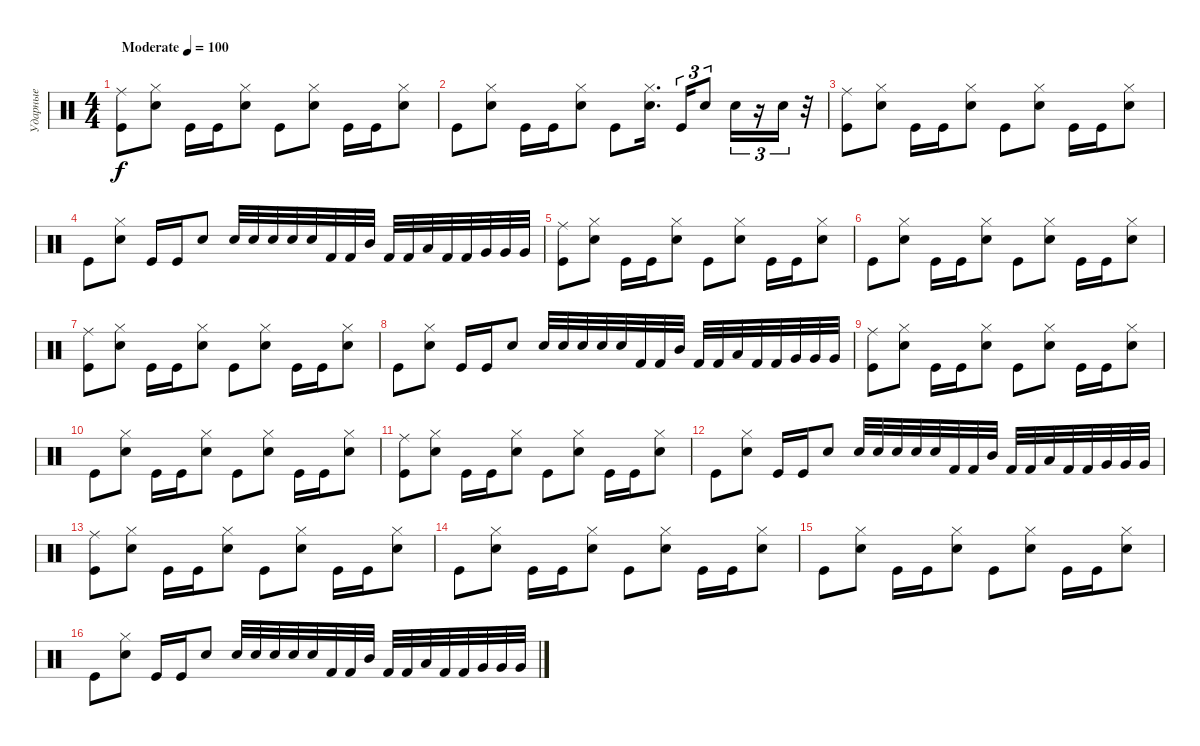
\track ("Ударные" "Ударные") {instrument percussion}
\staff {score}
\articulation defaults
\ts (4 4)
\tempo (100 "Moderate")
\clef neutral
\ks c
("Ride (middle)" "Kick (hit)").8{dy f} ("Hi-Hat (closed)" "Electric Snare (hit)").8 "Kick (hit)".16 "Kick (hit)".16 ("Hi-Hat (closed)" "Electric Snare (hit)").8 "Kick (hit)".8 ("Hi-Hat (closed)" "Electric Snare (hit)").8 "Kick (hit)".16 "Kick (hit)".16 ("Hi-Hat (closed)" "Electric Snare (hit)").8 |
"Kick (hit)".8 ("Hi-Hat (closed)" "Electric Snare (hit)").8 "Kick (hit)".16 "Kick (hit)".16 ("Hi-Hat (closed)" "Electric Snare (hit)").8 "Kick (hit)".8 ("Hi-Hat (closed)" "Electric Snare (hit)").16{d} "Kick (hit)".16{tu (3 2)} "Electric Snare (hit)".8{tu (3 2)} "Electric Snare (hit)".16{tu (3 2)} r.16{tu (3 2)} "Electric Snare (hit)".16{tu (3 2)} r.32 |
("Ride (middle)" "Kick (hit)").8 ("Hi-Hat (closed)" "Electric Snare (hit)").8 "Kick (hit)".16 "Kick (hit)".16 ("Hi-Hat (closed)" "Electric Snare (hit)").8 "Kick (hit)".8 ("Hi-Hat (closed)" "Electric Snare (hit)").8 "Kick (hit)".16 "Kick (hit)".16 ("Hi-Hat (closed)" "Electric Snare (hit)").8 |
"Kick (hit)".8 ("Hi-Hat (closed)" "Electric Snare (hit)").8 "Kick (hit)".16 "Kick (hit)".16 "Electric Snare (hit)".8 "Electric Snare (hit)".32 "Electric Snare (hit)".32 "Electric Snare (hit)".32 "Electric Snare (hit)".32 "Electric Snare (hit)".32 "Kick (hit) 2".32 "Kick (hit) 2".32 "Mid Tom (hit)".32 "Kick (hit) 2".32 "Kick (hit) 2".32 "Low Tom (hit)".32 "Kick (hit) 2".32 "Kick (hit) 2".32 "Very Low Tom (hit)".32 "Very Low Tom (hit)".32 "Very Low Tom (hit)".32 |
("Ride (middle)" "Kick (hit)").8 ("Hi-Hat (closed)" "Electric Snare (hit)").8 "Kick (hit)".16 "Kick (hit)".16 ("Hi-Hat (closed)" "Electric Snare (hit)").8 "Kick (hit)".8 ("Hi-Hat (closed)" "Electric Snare (hit)").8 "Kick (hit)".16 "Kick (hit)".16 ("Hi-Hat (closed)" "Electric Snare (hit)").8 |
"Kick (hit)".8 ("Hi-Hat (closed)" "Electric Snare (hit)").8 "Kick (hit)".16 "Kick (hit)".16 ("Hi-Hat (closed)" "Electric Snare (hit)").8 "Kick (hit)".8 ("Hi-Hat (closed)" "Electric Snare (hit)").8 "Kick (hit)".16 "Kick (hit)".16 ("Hi-Hat (closed)" "Electric Snare (hit)").8 |
("Ride (middle)" "Kick (hit)").8 ("Hi-Hat (closed)" "Electric Snare (hit)").8 "Kick (hit)".16 "Kick (hit)".16 ("Hi-Hat (closed)" "Electric Snare (hit)").8 "Kick (hit)".8 ("Hi-Hat (closed)" "Electric Snare (hit)").8 "Kick (hit)".16 "Kick (hit)".16 ("Hi-Hat (closed)" "Electric Snare (hit)").8 |
"Kick (hit)".8 ("Hi-Hat (closed)" "Electric Snare (hit)").8 "Kick (hit)".16 "Kick (hit)".16 "Electric Snare (hit)".8 "Electric Snare (hit)".32 "Electric Snare (hit)".32 "Electric Snare (hit)".32 "Electric Snare (hit)".32 "Electric Snare (hit)".32 "Kick (hit) 2".32 "Kick (hit) 2".32 "Mid Tom (hit)".32 "Kick (hit) 2".32 "Kick (hit) 2".32 "Low Tom (hit)".32 "Kick (hit) 2".32 "Kick (hit) 2".32 "Very Low Tom (hit)".32 "Very Low Tom (hit)".32 "Very Low Tom (hit)".32 |
("Ride (middle)" "Kick (hit)").8 ("Hi-Hat (closed)" "Electric Snare (hit)").8 "Kick (hit)".16 "Kick (hit)".16 ("Hi-Hat (closed)" "Electric Snare (hit)").8 "Kick (hit)".8 ("Hi-Hat (closed)" "Electric Snare (hit)").8 "Kick (hit)".16 "Kick (hit)".16 ("Hi-Hat (closed)" "Electric Snare (hit)").8 |
"Kick (hit)".8 ("Hi-Hat (closed)" "Electric Snare (hit)").8 "Kick (hit)".16 "Kick (hit)".16 ("Hi-Hat (closed)" "Electric Snare (hit)").8 "Kick (hit)".8 ("Hi-Hat (closed)" "Electric Snare (hit)").8 "Kick (hit)".16 "Kick (hit)".16 ("Hi-Hat (closed)" "Electric Snare (hit)").8 |
("Ride (middle)" "Kick (hit)").8 ("Hi-Hat (closed)" "Electric Snare (hit)").8 "Kick (hit)".16 "Kick (hit)".16 ("Hi-Hat (closed)" "Electric Snare (hit)").8 "Kick (hit)".8 ("Hi-Hat (closed)" "Electric Snare (hit)").8 "Kick (hit)".16 "Kick (hit)".16 ("Hi-Hat (closed)" "Electric Snare (hit)").8 |
"Kick (hit)".8 ("Hi-Hat (closed)" "Electric Snare (hit)").8 "Kick (hit)".16 "Kick (hit)".16 "Electric Snare (hit)".8 "Electric Snare (hit)".32 "Electric Snare (hit)".32 "Electric Snare (hit)".32 "Electric Snare (hit)".32 "Electric Snare (hit)".32 "Kick (hit) 2".32 "Kick (hit) 2".32 "Mid Tom (hit)".32 "Kick (hit) 2".32 "Kick (hit) 2".32 "Low Tom (hit)".32 "Kick (hit) 2".32 "Kick (hit) 2".32 "Very Low Tom (hit)".32 "Very Low Tom (hit)".32 "Very Low Tom (hit)".32 |
("Ride (middle)" "Kick (hit)").8 ("Hi-Hat (closed)" "Electric Snare (hit)").8 "Kick (hit)".16 "Kick (hit)".16 ("Hi-Hat (closed)" "Electric Snare (hit)").8 "Kick (hit)".8 ("Hi-Hat (closed)" "Electric Snare (hit)").8 "Kick (hit)".16 "Kick (hit)".16 ("Hi-Hat (closed)" "Electric Snare (hit)").8 |
"Kick (hit)".8 ("Hi-Hat (closed)" "Electric Snare (hit)").8 "Kick (hit)".16 "Kick (hit)".16 ("Hi-Hat (closed)" "Electric Snare (hit)").8 "Kick (hit)".8 ("Hi-Hat (closed)" "Electric Snare (hit)").8 "Kick (hit)".16 "Kick (hit)".16 ("Hi-Hat (closed)" "Electric Snare (hit)").8 |
"Kick (hit)".8 ("Hi-Hat (closed)" "Electric Snare (hit)").8 "Kick (hit)".16 "Kick (hit)".16 ("Hi-Hat (closed)" "Electric Snare (hit)").8 "Kick (hit)".8 ("Hi-Hat (closed)" "Electric Snare (hit)").8 "Kick (hit)".16 "Kick (hit)".16 ("Hi-Hat (closed)" "Electric Snare (hit)").8 |
"Kick (hit)".8 ("Hi-Hat (closed)" "Electric Snare (hit)").8 "Kick (hit)".16 "Kick (hit)".16 "Electric Snare (hit)".8 "Electric Snare (hit)".32 "Electric Snare (hit)".32 "Electric Snare (hit)".32 "Electric Snare (hit)".32 "Electric Snare (hit)".32 "Kick (hit) 2".32 "Kick (hit) 2".32 "Mid Tom (hit)".32 "Kick (hit) 2".32 "Kick (hit) 2".32 "Low Tom (hit)".32 "Kick (hit) 2".32 "Kick (hit) 2".32 "Very Low Tom (hit)".32 "Very Low Tom (hit)".32 "Very Low Tom (hit)".32
